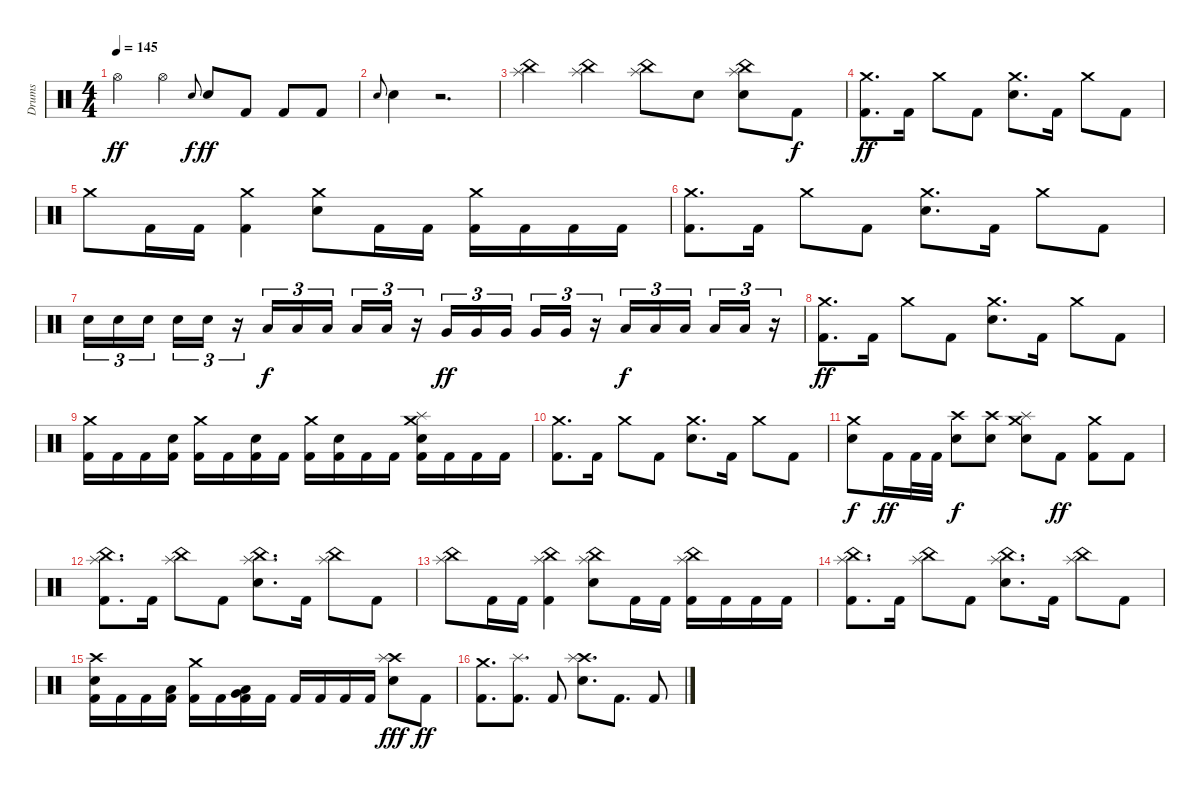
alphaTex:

\track ("Drums" "Drums") {instrument percussion}
\staff {score}
\articulation defaults
\ts (4 4)
\tempo 145
\clef neutral
\ks c "Hi-Hat (open)".4{dy ff} "Hi-Hat (open)".4 "Electric Snare (hit)".8{gr onbeat dy f} "Electric Snare (hit)".8{dy ff} "Kick (hit) 2".8 "Kick (hit) 2".8 "Kick (hit) 2".8
|
"Electric Snare (hit)".8{gr onbeat} "Electric Snare (hit)".4 r.2{d} |
("China (hit)" "Splash (hit)").4 ("China (hit)" "Splash (hit)").4 ("China (hit)" "Splash (hit)").8 "Electric Snare (hit)".8 ("China (hit)" "Splash (hit)" "Electric Snare (hit)").8 "Kick (hit) 2".8{dy f} |
("Crash medium (hit)" "Kick (hit) 2").8{d dy ff} "Kick (hit) 2".16 "Crash medium (hit)".8 "Kick (hit) 2".8 ("Crash medium (hit)" "Electric Snare (hit)").8{d} "Kick (hit) 2".16 "Crash medium (hit)".8 "Kick (hit) 2".8 |
"Crash medium (hit)".8 "Kick (hit) 2".16 "Kick (hit) 2".16 ("Crash medium (hit)" "Kick (hit) 2").4 ("Crash medium (hit)" "Electric Snare (hit)").8 "Kick (hit) 2".16 "Kick (hit) 2".16 ("Crash medium (hit)" "Kick (hit) 2").16 "Kick (hit) 2".16 "Kick (hit) 2".16 "Kick (hit) 2".16 |
("Crash medium (hit)" "Kick (hit) 2").8{d} "Kick (hit) 2".16 "Crash medium (hit)".8 "Kick (hit) 2".8 ("Crash medium (hit)" "Electric Snare (hit)").8{d} "Kick (hit) 2".16 "Crash medium (hit)".8 "Kick (hit) 2".8 |
"Electric Snare (hit)".16{tu (3 2)} "Electric Snare (hit)".16{tu (3 2)} "Electric Snare (hit)".16{tu (3 2) beam splitsecondary} "Electric Snare (hit)".16{tu (3 2)} "Electric Snare (hit)".16{tu (3 2)} r.16{tu (3 2)} "Low Tom (hit)".16{tu (3 2) dy f} "Low Tom (hit)".16{tu (3 2)} "Low Tom (hit)".16{tu (3 2) beam splitsecondary} "Low Tom (hit)".16{tu (3 2)} "Low Tom (hit)".16{tu (3 2)} r.16{tu (3 2)} "Very Low Tom (hit)".16{tu (3 2) dy ff} "Very Low Tom (hit)".16{tu (3 2)} "Very Low Tom (hit)".16{tu (3 2) beam splitsecondary} "Very Low Tom (hit)".16{tu (3 2)} "Very Low Tom (hit)".16{tu (3 2)} r.16{tu (3 2)} "Low Floor Tom (hit)".16{tu (3 2) dy f} "Low Floor Tom (hit)".16{tu (3 2)} "Low Floor Tom (hit)".16{tu (3 2) beam splitsecondary} "Low Floor Tom (hit)".16{tu (3 2)} "Low Floor Tom (hit)".16{tu (3 2)} r.16{tu (3 2)} |
("Crash medium (hit)" "Kick (hit) 2").8{d dy ff} "Kick (hit) 2".16 "Crash medium (hit)".8 "Kick (hit) 2".8 ("Crash medium (hit)" "Electric Snare (hit)").8{d} "Kick (hit) 2".16 "Crash medium (hit)".8 "Kick (hit) 2".8 |
("Crash medium (hit)" "Kick (hit) 2").16 "Kick (hit) 2".16 "Kick (hit) 2".16 ("Electric Snare (hit)" "Kick (hit) 2").16 ("Crash medium (hit)" "Kick (hit) 2").16 "Kick (hit) 2".16 ("Electric Snare (hit)" "Kick (hit) 2").16 "Kick (hit) 2".16 ("Crash medium (hit)" "Kick (hit) 2").16 ("Electric Snare (hit)" "Kick (hit) 2").16 "Kick (hit) 2".16 "Kick (hit) 2".16 ("Crash medium (hit)" "Splash (hit)" "Electric Snare (hit)" "Kick (hit) 2").16 "Kick (hit) 2".16 "Kick (hit) 2".16 "Kick (hit) 2".16 |
("Crash medium (hit)" "Kick (hit) 2").8{d} "Kick (hit) 2".16 "Crash medium (hit)".8 "Kick (hit) 2".8 ("Crash medium (hit)" "Electric Snare (hit)").8{d} "Kick (hit) 2".16 "Crash medium (hit)".8 "Kick (hit) 2".8 |
("Crash medium (hit)" "Electric Snare (hit)").8{dy f} "Kick (hit) 2".16{dy ff} "Kick (hit) 2".32 "Kick (hit) 2".32 ("Crash high (hit)" "Electric Snare (hit)").8{dy f} ("Crash high (hit)" "Electric Snare (hit)").8 ("Crash medium (hit)" "Splash (hit)" "Electric Snare (hit)").8 "Kick (hit) 2".8{dy ff} ("Crash medium (hit)" "Kick (hit) 2").8 "Kick (hit) 2".8 |
("China (hit)" "Splash (hit)" "Kick (hit) 2").8{d} "Kick (hit) 2".16 ("China (hit)" "Splash (hit)").8 "Kick (hit) 2".8 ("China (hit)" "Splash (hit)" "Electric Snare (hit)").8{d} "Kick (hit) 2".16 ("China (hit)" "Splash (hit)").8 "Kick (hit) 2".8 |
("China (hit)" "Splash (hit)").8 "Kick (hit) 2".16 "Kick (hit) 2".16 ("China (hit)" "Splash (hit)" "Kick (hit) 2").4 ("China (hit)" "Splash (hit)" "Electric Snare (hit)").8 "Kick (hit) 2".16 "Kick (hit) 2".16 ("China (hit)" "Splash (hit)" "Kick (hit) 2").16 "Kick (hit) 2".16 "Kick (hit) 2".16 "Kick (hit) 2".16 |
("China (hit)" "Splash (hit)" "Kick (hit) 2").8{d} "Kick (hit) 2".16 ("China (hit)" "Splash (hit)").8 "Kick (hit) 2".8 ("China (hit)" "Splash (hit)" "Electric Snare (hit)").8{d} "Kick (hit) 2".16 ("China (hit)" "Splash (hit)").8 "Kick (hit) 2".8 |
("Crash high (hit)" "Electric Snare (hit)" "Kick (hit) 2").16 "Kick (hit) 2".16 "Kick (hit) 2".16 ("Low Tom (hit)" "Kick (hit) 2").16 ("Crash medium (hit)" "Kick (hit) 2").16 "Kick (hit) 2".16 ("Low Tom (hit)" "Very Low Tom (hit)" "Kick (hit) 2").16 "Kick (hit) 2".16 "Kick (hit) 2".16 "Kick (hit) 2".16 "Kick (hit) 2".16 "Kick (hit) 2".16 ("Crash high (hit)" "Splash (hit)" "Electric Snare (hit)").8{dy fff} "Kick (hit) 2".8{dy ff} |
("Crash medium (hit)" "Kick (hit) 2").8{d} ("Splash (hit)" "Kick (hit) 2").8{d} "Kick (hit) 2".8 ("Crash high (hit)" "Splash (hit)" "Electric Snare (hit)").8{d} "Kick (hit) 2".8{d} "Kick (hit) 2".8
